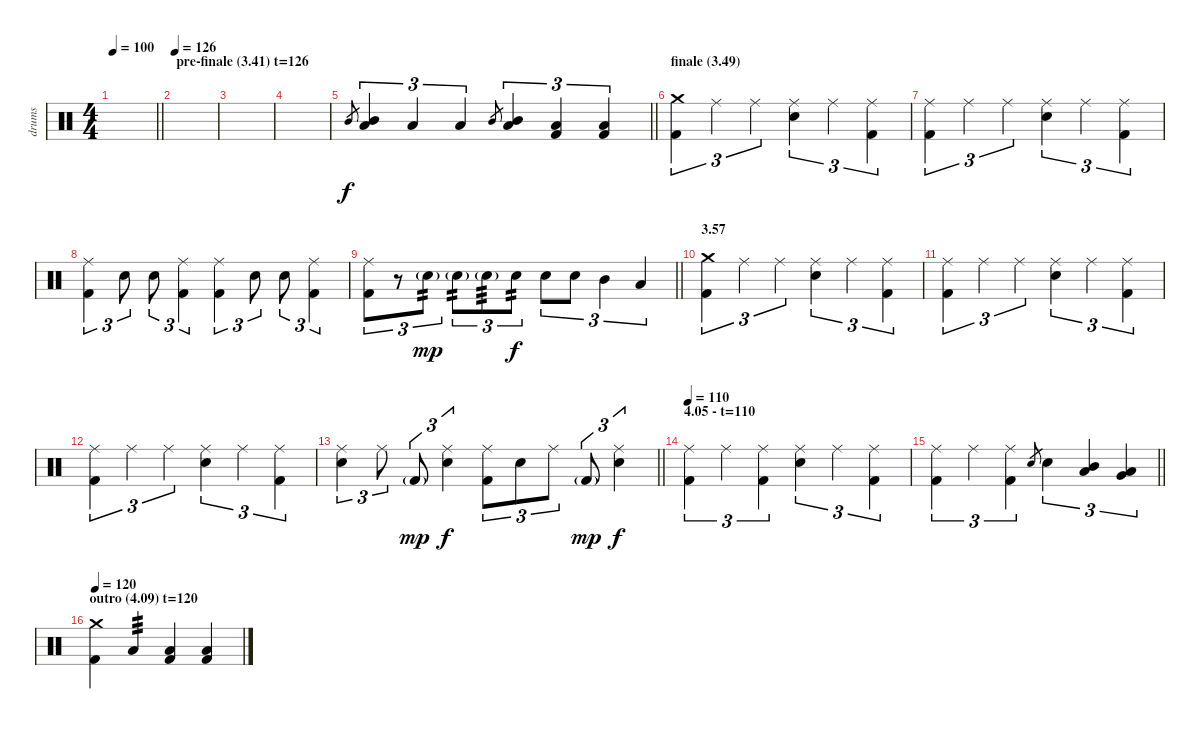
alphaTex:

\track ("drums" "drums") {instrument percussion}
\staff {score}
\articulation defaults
\ts (4 4)
\tempo 100
\clef neutral
\barLineRight lightlight
\ks c
|
\section ("" "pre-finale (3.41) t=126")
\tempo 126
|
|
|
\barLineRight lightlight "Mid Tom (hit)".8{gr}
("Mid Tom (hit)" "Low Tom (hit)").4{tu (3 2)} "Low Tom (hit)".4{tu (3 2)} "Low Tom (hit)".4{tu (3 2)} "Mid Tom (hit)".8{gr} ("Mid Tom (hit)" "Low Tom (hit)").4{tu (3 2)} ("Low Tom (hit)" "Kick (hit) 2").4{tu (3 2)} ("Low Tom (hit)" "Kick (hit) 2").4{tu (3 2)} |
\section ("" "finale (3.49)")
("Crash medium (hit)" "Kick (hit) 2").4{tu (3 2)} "Ride (middle)".4{tu (3 2)} "Ride (middle)".4{tu (3 2)} ("Ride (middle)" "Electric Snare (hit)").4{tu (3 2)} "Ride (middle)".4{tu (3 2)} ("Ride (middle)" "Kick (hit) 2").4{tu (3 2)} |
("Ride (middle)" "Kick (hit) 2").4{tu (3 2)} "Ride (middle)".4{tu (3 2)} "Ride (middle)".4{tu (3 2)} ("Ride (middle)" "Electric Snare (hit)").4{tu (3 2)} "Ride (middle)".4{tu (3 2)} ("Ride (middle)" "Kick (hit) 2").4{tu (3 2)} |
("Ride (middle)" "Kick (hit) 2").4{tu (3 2)} "Electric Snare (hit)".8{tu (3 2)} "Electric Snare (hit)".8{tu (3 2)} ("Ride (middle)" "Kick (hit) 2").4{tu (3 2)} ("Ride (middle)" "Kick (hit) 2").4{tu (3 2)} "Electric Snare (hit)".8{tu (3 2)} "Electric Snare (hit)".8{tu (3 2)} ("Ride (middle)" "Kick (hit) 2").4{tu (3 2)} |
\barLineRight lightlight
("Ride (middle)" "Kick (hit) 2").8{tu (3 2)} r.8{tu (3 2)} "Electric Snare (hit)"{g}.8{tu (3 2) tp 2 dy mp} "Electric Snare (hit)"{g}.8{tu (3 2) tp 2} "Electric Snare (hit)"{g}.8{tu (3 2) tp 3} "Electric Snare (hit)".8{tu (3 2) tp 2 dy f} "Electric Snare (hit)".8{tu (3 2)} "Electric Snare (hit)".8{tu (3 2)} "Mid Tom (hit)".4{tu (3 2)} "Low Tom (hit)".4{tu (3 2)} |
\section ("" "3.57")
("Crash medium (hit)" "Kick (hit) 2").4{tu (3 2)} "Ride (middle)".4{tu (3 2)} "Ride (middle)".4{tu (3 2)} ("Ride (middle)" "Electric Snare (hit)").4{tu (3 2)} "Ride (middle)".4{tu (3 2)} ("Ride (middle)" "Kick (hit) 2").4{tu (3 2)} |
("Ride (middle)" "Kick (hit) 2").4{tu (3 2)} "Ride (middle)".4{tu (3 2)} "Ride (middle)".4{tu (3 2)} ("Ride (middle)" "Electric Snare (hit)").4{tu (3 2)} "Ride (middle)".4{tu (3 2)} ("Ride (middle)" "Kick (hit) 2").4{tu (3 2)} |
("Ride (middle)" "Kick (hit) 2").4{tu (3 2)} "Ride (middle)".4{tu (3 2)} "Ride (middle)".4{tu (3 2)} ("Ride (middle)" "Electric Snare (hit)").4{tu (3 2)} "Ride (middle)".4{tu (3 2)} ("Ride (middle)" "Kick (hit) 2").4{tu (3 2)} |
\barLineRight lightlight
("Ride (middle)" "Electric Snare (hit)").4{tu (3 2)} "Ride (middle)".8{tu (3 2)} "Kick (hit) 2"{g}.8{tu (3 2) dy mp} ("Ride (middle)" "Electric Snare (hit)").4{tu (3 2) dy f} ("Ride (middle)" "Kick (hit) 2").8{tu (3 2)} "Electric Snare (hit)".8{tu (3 2)} "Ride (middle)".8{tu (3 2)} "Kick (hit) 2"{g}.8{tu (3 2) dy mp} ("Ride (middle)" "Electric Snare (hit)").4{tu (3 2) dy f} |
\section ("" "4.05 - t=110")
\tempo 110
("Ride (middle)" "Kick (hit) 2").4{tu (3 2)} "Ride (middle)".4{tu (3 2)} ("Ride (middle)" "Kick (hit) 2").4{tu (3 2)} ("Ride (middle)" "Electric Snare (hit)").4{tu (3 2)} "Ride (middle)".4{tu (3 2)} ("Ride (middle)" "Kick (hit) 2").4{tu (3 2)} |
\barLineRight lightlight
("Ride (middle)" "Kick (hit) 2").4{tu (3 2)} "Ride (middle)".4{tu (3 2)} ("Ride (middle)" "Kick (hit) 2").4{tu (3 2)} "Electric Snare (hit)".8{gr} "Electric Snare (hit)".4{tu (3 2)} ("Mid Tom (hit)" "Low Tom (hit)").4{tu (3 2)} ("Very Low Tom (hit)" "Low Tom (hit)").4{tu (3 2)} |
\section ("" "outro (4.09) t=120")
\tempo 120
("Crash medium (hit)" "Kick (hit) 2").4 "Low Tom (hit)".4{tp 3} ("Low Tom (hit)" "Kick (hit) 2").4 ("Low Tom (hit)" "Kick (hit) 2").4
